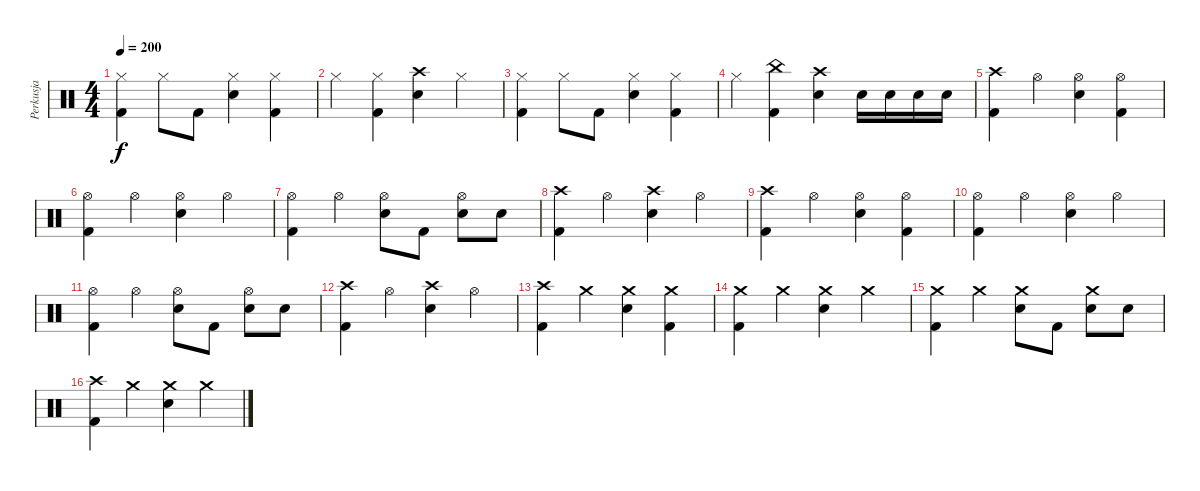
\track ("Perkusja" "Perkusja") {instrument percussion}
\staff {score}
\articulation defaults
\ts (4 4)
\tempo 200
\clef neutral
\ks c
("Hi-Hat (closed)" "Kick (hit) 2").4{dy f} "Hi-Hat (closed)".8 "Kick (hit) 2".8 ("Hi-Hat (closed)" "Snare (hit) 2").4 ("Hi-Hat (closed)" "Kick (hit) 2").4 |
"Hi-Hat (closed)".4 ("Hi-Hat (closed)" "Kick (hit) 2").4 ("Crash high (hit)" "Snare (hit) 2").4 "Hi-Hat (closed)".4 |
("Hi-Hat (closed)" "Kick (hit) 2").4 "Hi-Hat (closed)".8 "Kick (hit) 2".8 ("Hi-Hat (closed)" "Snare (hit) 2").4 ("Hi-Hat (closed)" "Kick (hit) 2").4 |
"Hi-Hat (closed)".4 ("China (hit)" "Kick (hit) 2").4 ("Crash high (hit)" "Snare (hit) 2").4 "Electric Snare (hit)".16 "Electric Snare (hit)".16 "Electric Snare (hit)".16 "Electric Snare (hit)".16 |
("Crash high (hit)" "Kick (hit) 2").4 "Hi-Hat (open)".4 ("Hi-Hat (open)" "Snare (hit) 2").4 ("Hi-Hat (open)" "Kick (hit) 2").4 |
("Hi-Hat (open)" "Kick (hit) 2").4 "Hi-Hat (open)".4 ("Hi-Hat (open)" "Snare (hit) 2").4 "Hi-Hat (open)".4 |
("Hi-Hat (open)" "Kick (hit) 2").4 "Hi-Hat (open)".4 ("Hi-Hat (open)" "Snare (hit) 2").8 "Kick (hit) 2".8 ("Hi-Hat (open)" "Electric Snare (hit)").8 "Electric Snare (hit)".8 |
("Crash high (hit)" "Kick (hit) 2").4 "Hi-Hat (open)".4 ("Crash high (hit)" "Snare (hit) 2").4 "Hi-Hat (open)".4 |
("Crash high (hit)" "Kick (hit) 2").4 "Hi-Hat (open)".4 ("Hi-Hat (open)" "Snare (hit) 2").4 ("Hi-Hat (open)" "Kick (hit) 2").4 |
("Hi-Hat (open)" "Kick (hit) 2").4 "Hi-Hat (open)".4 ("Hi-Hat (open)" "Snare (hit) 2").4 "Hi-Hat (open)".4 |
("Hi-Hat (open)" "Kick (hit) 2").4 "Hi-Hat (open)".4 ("Hi-Hat (open)" "Snare (hit) 2").8 "Kick (hit) 2".8 ("Hi-Hat (open)" "Electric Snare (hit)").8 "Electric Snare (hit)".8 |
("Crash high (hit)" "Kick (hit) 2").4 "Hi-Hat (open)".4 ("Crash high (hit)" "Snare (hit) 2").4 "Hi-Hat (open)".4 |
("Crash high (hit)" "Kick (hit) 2").4 "Crash medium (hit)".4 ("Crash medium (hit)" "Snare (hit) 2").4 ("Crash medium (hit)" "Kick (hit) 2").4 |
("Crash medium (hit)" "Kick (hit) 2").4 "Crash medium (hit)".4 ("Crash medium (hit)" "Snare (hit) 2").4 "Crash medium (hit)".4 |
("Crash medium (hit)" "Kick (hit) 2").4 "Crash medium (hit)".4 ("Crash medium (hit)" "Snare (hit) 2").8 "Kick (hit) 2".8 ("Crash medium (hit)" "Electric Snare (hit)").8 "Electric Snare (hit)".8 |
("Crash high (hit)" "Kick (hit) 2").4 "Crash medium (hit)".4 ("Crash medium (hit)" "Snare (hit) 2").4 "Crash medium (hit)".4
